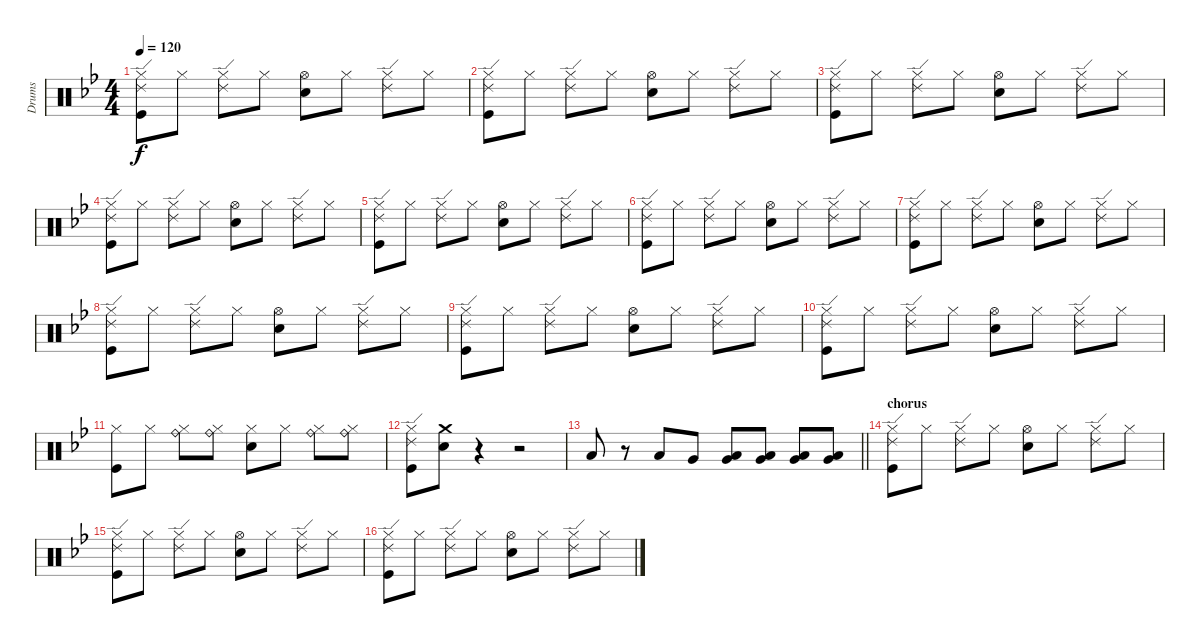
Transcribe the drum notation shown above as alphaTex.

\track ("Drums" "Drums") {instrument percussion}
\staff {score}
\articulation defaults
\ts (4 4)
\tempo 120
\clef neutral
\ks gminor
("Hi-Hat (closed)" "Ride (edge) 2" "Kick (hit)").8{dy f} "Hi-Hat (closed)".8 ("Hi-Hat (closed)" "Ride (edge) 2").8 "Hi-Hat (closed)".8 ("Hi-Hat (open)" "Electric Snare (hit)").8 "Hi-Hat (closed)".8 ("Hi-Hat (closed)" "Ride (edge) 2").8 "Hi-Hat (closed)".8 |
("Hi-Hat (closed)" "Ride (edge) 2" "Kick (hit)").8 "Hi-Hat (closed)".8 ("Hi-Hat (closed)" "Ride (edge) 2").8 "Hi-Hat (closed)".8 ("Hi-Hat (open)" "Electric Snare (hit)").8 "Hi-Hat (closed)".8 ("Hi-Hat (closed)" "Ride (edge) 2").8 "Hi-Hat (closed)".8 |
("Hi-Hat (closed)" "Ride (edge) 2" "Kick (hit)").8 "Hi-Hat (closed)".8 ("Hi-Hat (closed)" "Ride (edge) 2").8 "Hi-Hat (closed)".8 ("Hi-Hat (open)" "Electric Snare (hit)").8 "Hi-Hat (closed)".8 ("Hi-Hat (closed)" "Ride (edge) 2").8 "Hi-Hat (closed)".8 |
("Hi-Hat (closed)" "Ride (edge) 2" "Kick (hit)").8 "Hi-Hat (closed)".8 ("Hi-Hat (closed)" "Ride (edge) 2").8 "Hi-Hat (closed)".8 ("Hi-Hat (open)" "Electric Snare (hit)").8 "Hi-Hat (closed)".8 ("Hi-Hat (closed)" "Ride (edge) 2").8 "Hi-Hat (closed)".8 |
("Hi-Hat (closed)" "Ride (edge) 2" "Kick (hit)").8 "Hi-Hat (closed)".8 ("Hi-Hat (closed)" "Ride (edge) 2").8 "Hi-Hat (closed)".8 ("Hi-Hat (open)" "Electric Snare (hit)").8 "Hi-Hat (closed)".8 ("Hi-Hat (closed)" "Ride (edge) 2").8 "Hi-Hat (closed)".8 |
("Hi-Hat (closed)" "Ride (edge) 2" "Kick (hit)").8 "Hi-Hat (closed)".8 ("Hi-Hat (closed)" "Ride (edge) 2").8 "Hi-Hat (closed)".8 ("Hi-Hat (open)" "Electric Snare (hit)").8 "Hi-Hat (closed)".8 ("Hi-Hat (closed)" "Ride (edge) 2").8 "Hi-Hat (closed)".8 |
("Hi-Hat (closed)" "Ride (edge) 2" "Kick (hit)").8 "Hi-Hat (closed)".8 ("Hi-Hat (closed)" "Ride (edge) 2").8 "Hi-Hat (closed)".8 ("Hi-Hat (open)" "Electric Snare (hit)").8 "Hi-Hat (closed)".8 ("Hi-Hat (closed)" "Ride (edge) 2").8 "Hi-Hat (closed)".8 |
("Hi-Hat (closed)" "Ride (edge) 2" "Kick (hit)").8 "Hi-Hat (closed)".8 ("Hi-Hat (closed)" "Ride (edge) 2").8 "Hi-Hat (closed)".8 ("Hi-Hat (open)" "Electric Snare (hit)").8 "Hi-Hat (closed)".8 ("Hi-Hat (closed)" "Ride (edge) 2").8 "Hi-Hat (closed)".8 |
("Hi-Hat (closed)" "Ride (edge) 2" "Kick (hit)").8 "Hi-Hat (closed)".8 ("Hi-Hat (closed)" "Ride (edge) 2").8 "Hi-Hat (closed)".8 ("Hi-Hat (open)" "Electric Snare (hit)").8 "Hi-Hat (closed)".8 ("Hi-Hat (closed)" "Ride (edge) 2").8 "Hi-Hat (closed)".8 |
("Hi-Hat (closed)" "Ride (edge) 2" "Kick (hit)").8 "Hi-Hat (closed)".8 ("Hi-Hat (closed)" "Ride (edge) 2").8 "Hi-Hat (closed)".8 ("Hi-Hat (open)" "Electric Snare (hit)").8 "Hi-Hat (closed)".8 ("Hi-Hat (closed)" "Ride (edge) 2").8 "Hi-Hat (closed)".8 |
("Hi-Hat (closed)" "Kick (hit)").8 "Hi-Hat (closed)".8 ("Hi-Hat (closed)" "Ride (bell)").8 ("Hi-Hat (closed)" "Ride (bell)").8 ("Hi-Hat (closed)" "Electric Snare (hit)").8 "Hi-Hat (closed)".8 ("Hi-Hat (closed)" "Ride (bell)").8 ("Hi-Hat (closed)" "Ride (bell)").8 |
("Hi-Hat (closed)" "Ride (edge) 2" "Kick (hit)").8 ("Crash medium (hit)" "Electric Snare (hit)").8 r.4 r.2 |
\barLineRight lightlight "Low Tom (hit)".8
r.8 "Low Tom (hit)".8 "Very Low Tom (hit)".8 ("Very Low Tom (hit)" "Low Floor Tom (hit)").8 ("Very Low Tom (hit)" "Low Floor Tom (hit)").8 ("Very Low Tom (hit)" "Low Floor Tom (hit)").8 ("Very Low Tom (hit)" "Low Floor Tom (hit)").8 |
\section ("" "chorus ")
("Hi-Hat (closed)" "Ride (edge) 2" "Kick (hit)").8 "Hi-Hat (closed)".8 ("Hi-Hat (closed)" "Ride (edge) 2").8 "Hi-Hat (closed)".8 ("Hi-Hat (open)" "Electric Snare (hit)").8 "Hi-Hat (closed)".8 ("Hi-Hat (closed)" "Ride (edge) 2").8 "Hi-Hat (closed)".8 |
("Hi-Hat (closed)" "Ride (edge) 2" "Kick (hit)").8 "Hi-Hat (closed)".8 ("Hi-Hat (closed)" "Ride (edge) 2").8 "Hi-Hat (closed)".8 ("Hi-Hat (open)" "Electric Snare (hit)").8 "Hi-Hat (closed)".8 ("Hi-Hat (closed)" "Ride (edge) 2").8 "Hi-Hat (closed)".8 |
("Hi-Hat (closed)" "Ride (edge) 2" "Kick (hit)").8 "Hi-Hat (closed)".8 ("Hi-Hat (closed)" "Ride (edge) 2").8 "Hi-Hat (closed)".8 ("Hi-Hat (open)" "Electric Snare (hit)").8 "Hi-Hat (closed)".8 ("Hi-Hat (closed)" "Ride (edge) 2").8 "Hi-Hat (closed)".8
